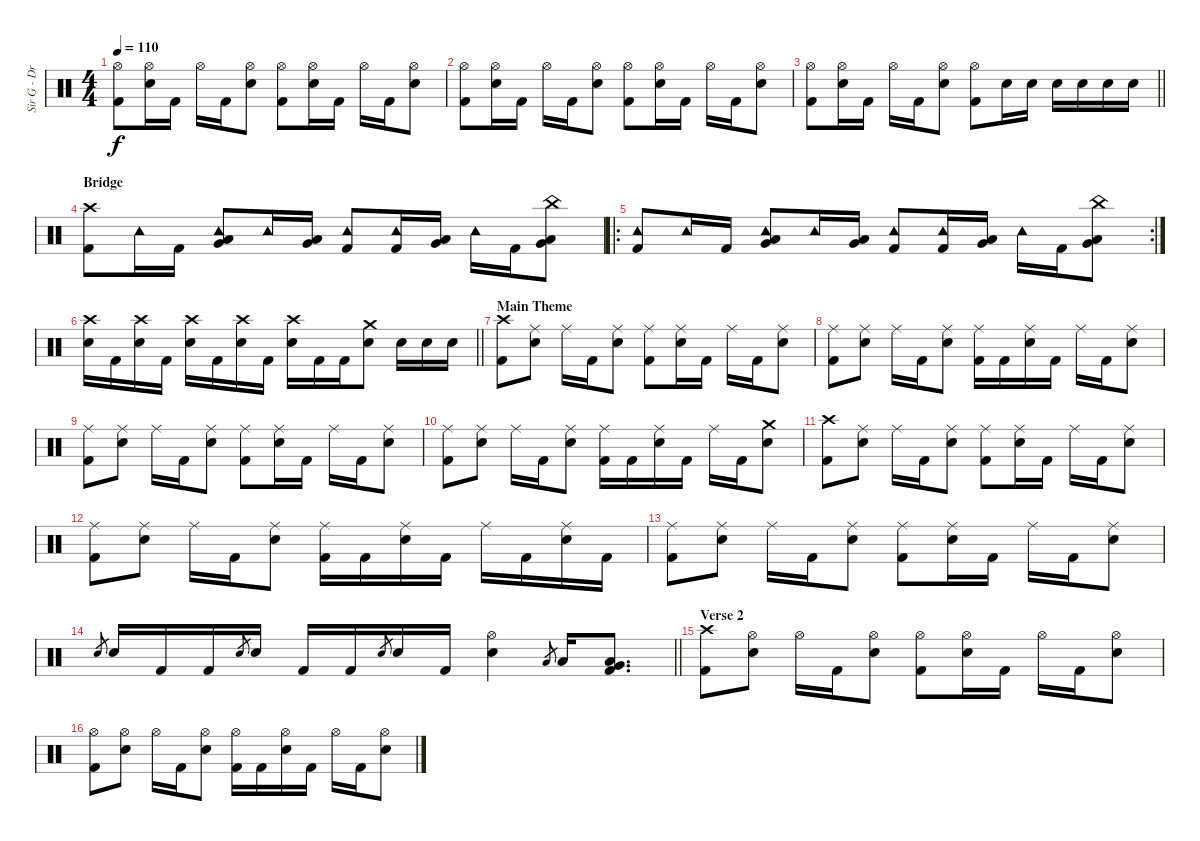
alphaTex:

\track ("Sir G - Drums" "Sir G - Dr") {instrument percussion}
\staff {score}
\articulation defaults
\ts (4 4)
\tempo 110
\clef neutral
\ks c
("Hi-Hat (open)" "Kick (hit) 2").8{dy f} ("Hi-Hat (open)" "Electric Snare (hit)").16 "Kick (hit) 2".16 "Hi-Hat (open)".16 "Kick (hit) 2".16 ("Hi-Hat (open)" "Electric Snare (hit)").8 ("Hi-Hat (open)" "Kick (hit) 2").8 ("Hi-Hat (open)" "Electric Snare (hit)").16 "Kick (hit) 2".16 "Hi-Hat (open)".16 "Kick (hit) 2".16 ("Hi-Hat (open)" "Electric Snare (hit)").8 |
("Hi-Hat (open)" "Kick (hit) 2").8 ("Hi-Hat (open)" "Electric Snare (hit)").16 "Kick (hit) 2".16 "Hi-Hat (open)".16 "Kick (hit) 2".16 ("Hi-Hat (open)" "Electric Snare (hit)").8 ("Hi-Hat (open)" "Kick (hit) 2").8 ("Hi-Hat (open)" "Electric Snare (hit)").16 "Kick (hit) 2".16 "Hi-Hat (open)".16 "Kick (hit) 2".16 ("Hi-Hat (open)" "Electric Snare (hit)").8 |
\barLineRight lightlight
("Hi-Hat (open)" "Kick (hit) 2").8 ("Hi-Hat (open)" "Electric Snare (hit)").16 "Kick (hit) 2".16 "Hi-Hat (open)".16 "Kick (hit) 2".16 ("Hi-Hat (open)" "Electric Snare (hit)").8 ("Hi-Hat (open)" "Kick (hit) 2").8 "Electric Snare (hit)".16 "Electric Snare (hit)".16 "Electric Snare (hit)".16 "Electric Snare (hit)".16 "Electric Snare (hit)".16 "Electric Snare (hit)".16 |
\section ("" "Bridge")
("Crash high (hit)" "Kick (hit) 2").8 "Tambourine (hit)".16 "Kick (hit) 2".16 ("Tambourine (hit)" "Very Low Tom (hit)" "Low Floor Tom (hit)").8 "Tambourine (hit)".16 ("Very Low Tom (hit)" "Low Floor Tom (hit)").16 ("Tambourine (hit)" "Kick (hit) 2").8 ("Tambourine (hit)" "Kick (hit) 2").16 ("Very Low Tom (hit)" "Low Floor Tom (hit)").16 "Tambourine (hit)".16 "Kick (hit) 2".16 ("China (hit)" "Very Low Tom (hit)" "Low Floor Tom (hit)").8 |
\ro
\rc 2
("Tambourine (hit)" "Kick (hit) 2").8 "Tambourine (hit)".16 "Kick (hit) 2".16 ("Tambourine (hit)" "Very Low Tom (hit)" "Low Floor Tom (hit)").8 "Tambourine (hit)".16 ("Very Low Tom (hit)" "Low Floor Tom (hit)").16 ("Tambourine (hit)" "Kick (hit) 2").8 ("Tambourine (hit)" "Kick (hit) 2").16 ("Very Low Tom (hit)" "Low Floor Tom (hit)").16 "Tambourine (hit)".16 "Kick (hit) 2".16 ("China (hit)" "Very Low Tom (hit)" "Low Floor Tom (hit)").8 |
\barLineRight lightlight
("Crash high (hit)" "Electric Snare (hit)").16 "Kick (hit) 2".16 ("Crash high (hit)" "Electric Snare (hit)").16 "Kick (hit) 2".16 ("Crash high (hit)" "Electric Snare (hit)").16 "Kick (hit) 2".16 ("Crash high (hit)" "Electric Snare (hit)").16 "Kick (hit) 2".16 ("Crash high (hit)" "Electric Snare (hit)").16 "Kick (hit) 2".16 "Kick (hit) 2".16 ("Crash medium (hit)" "Electric Snare (hit)").8 "Electric Snare (hit)".16 "Electric Snare (hit)".16 "Electric Snare (hit)".16 |
\section ("" "Main Theme")
("Crash high (hit)" "Kick (hit) 2").8 ("Ride (middle)" "Electric Snare (hit)").8 "Ride (middle)".16 "Kick (hit) 2".16 ("Ride (middle)" "Electric Snare (hit)").8 ("Ride (middle)" "Kick (hit) 2").8 ("Ride (middle)" "Electric Snare (hit)").16 "Kick (hit) 2".16 "Ride (middle)".16 "Kick (hit) 2".16 ("Ride (middle)" "Electric Snare (hit)").8 |
("Ride (middle)" "Kick (hit) 2").8 ("Ride (middle)" "Electric Snare (hit)").8 "Ride (middle)".16 "Kick (hit) 2".16 ("Ride (middle)" "Electric Snare (hit)").8 ("Ride (middle)" "Kick (hit) 2").16 "Kick (hit) 2".16 ("Ride (middle)" "Electric Snare (hit)").16 "Kick (hit) 2".16 "Ride (middle)".16 "Kick (hit) 2".16 ("Ride (middle)" "Electric Snare (hit)").8 |
("Ride (middle)" "Kick (hit) 2").8 ("Ride (middle)" "Electric Snare (hit)").8 "Ride (middle)".16 "Kick (hit) 2".16 ("Ride (middle)" "Electric Snare (hit)").8 ("Ride (middle)" "Kick (hit) 2").8 ("Ride (middle)" "Electric Snare (hit)").16 "Kick (hit) 2".16 "Ride (middle)".16 "Kick (hit) 2".16 ("Ride (middle)" "Electric Snare (hit)").8 |
("Ride (middle)" "Kick (hit) 2").8 ("Ride (middle)" "Electric Snare (hit)").8 "Ride (middle)".16 "Kick (hit) 2".16 ("Ride (middle)" "Electric Snare (hit)").8 ("Ride (middle)" "Kick (hit) 2").16 "Kick (hit) 2".16 ("Ride (middle)" "Electric Snare (hit)").16 "Kick (hit) 2".16 "Ride (middle)".16 "Kick (hit) 2".16 ("Crash medium (hit)" "Electric Snare (hit)").8 |
("Crash high (hit)" "Kick (hit) 2").8 ("Ride (middle)" "Electric Snare (hit)").8 "Ride (middle)".16 "Kick (hit) 2".16 ("Ride (middle)" "Electric Snare (hit)").8 ("Ride (middle)" "Kick (hit) 2").8 ("Ride (middle)" "Electric Snare (hit)").16 "Kick (hit) 2".16 "Ride (middle)".16 "Kick (hit) 2".16 ("Ride (middle)" "Electric Snare (hit)").8 |
("Ride (middle)" "Kick (hit) 2").8 ("Ride (middle)" "Electric Snare (hit)").8 "Ride (middle)".16 "Kick (hit) 2".16 ("Ride (middle)" "Electric Snare (hit)").8 ("Ride (middle)" "Kick (hit) 2").16 "Kick (hit) 2".16 ("Ride (middle)" "Electric Snare (hit)").16 "Kick (hit) 2".16 "Ride (middle)".16 "Kick (hit) 2".16 ("Ride (middle)" "Electric Snare (hit)").16 "Kick (hit) 2".16 |
("Ride (middle)" "Kick (hit) 2").8 ("Ride (middle)" "Electric Snare (hit)").8 "Ride (middle)".16 "Kick (hit) 2".16 ("Ride (middle)" "Electric Snare (hit)").8 ("Ride (middle)" "Kick (hit) 2").8 ("Ride (middle)" "Electric Snare (hit)").16 "Kick (hit) 2".16 "Ride (middle)".16 "Kick (hit) 2".16 ("Ride (middle)" "Electric Snare (hit)").8 |
\barLineRight lightlight "Electric Snare (hit)".8{gr} "Electric Snare (hit)".16 "Kick (hit) 2".16 "Kick (hit) 2".16 "Electric Snare (hit)".8{gr} "Electric Snare (hit)".16 "Kick (hit) 2".16 "Kick (hit) 2".16 "Electric Snare (hit)".8{gr} "Electric Snare (hit)".16 "Kick (hit) 2".16
("Hi-Hat (open)" "Electric Snare (hit)").4 "Low Tom (hit)".8{gr} "Low Tom (hit)".16 ("Very Low Tom (hit)" "Low Floor Tom (hit)" "Kick (hit) 2").8{d} |
\section ("" "Verse 2")
("Crash high (hit)" "Kick (hit) 2").8 ("Hi-Hat (open)" "Electric Snare (hit)").8 "Hi-Hat (open)".16 "Kick (hit) 2".16 ("Hi-Hat (open)" "Electric Snare (hit)").8 ("Hi-Hat (open)" "Kick (hit) 2").8 ("Hi-Hat (open)" "Electric Snare (hit)").16 "Kick (hit) 2".16 "Hi-Hat (open)".16 "Kick (hit) 2".16 ("Hi-Hat (open)" "Electric Snare (hit)").8 |
("Hi-Hat (open)" "Kick (hit) 2").8 ("Hi-Hat (open)" "Electric Snare (hit)").8 "Hi-Hat (open)".16 "Kick (hit) 2".16 ("Hi-Hat (open)" "Electric Snare (hit)").8 ("Hi-Hat (open)" "Kick (hit) 2").16 "Kick (hit) 2".16 ("Hi-Hat (open)" "Electric Snare (hit)").16 "Kick (hit) 2".16 "Hi-Hat (open)".16 "Kick (hit) 2".16 ("Hi-Hat (open)" "Electric Snare (hit)").8
